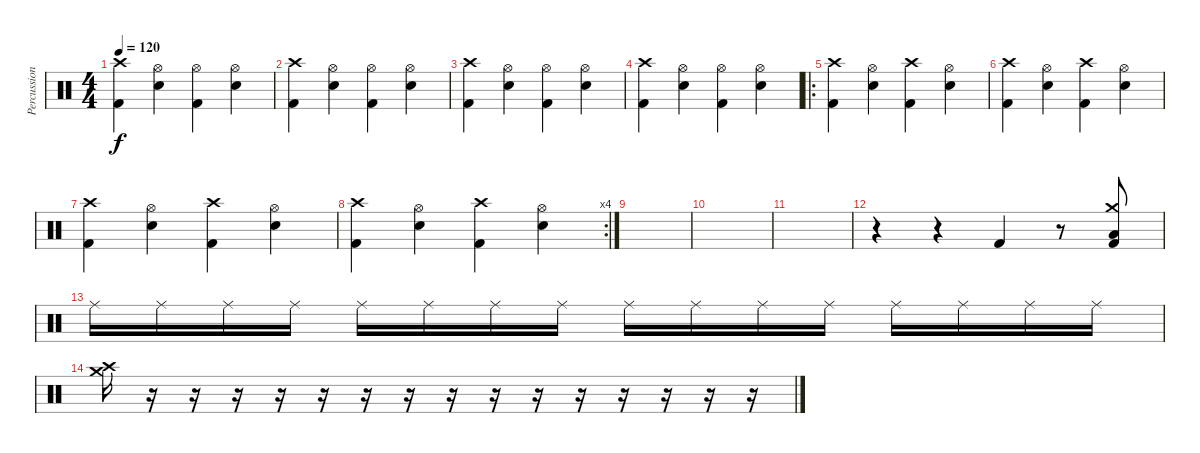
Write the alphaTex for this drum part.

\track ("Percussions" "Percussion") {instrument percussion}
\staff {score}
\articulation defaults
\ts (4 4)
\tempo 120
\clef neutral
\ks c
("Crash high (hit)" "Kick (hit) 2").4{dy f} ("Hi-Hat (open)" "Electric Snare (hit)").4 ("Hi-Hat (open)" "Kick (hit) 2").4 ("Hi-Hat (open)" "Electric Snare (hit)").4 |
("Crash high (hit)" "Kick (hit) 2").4 ("Hi-Hat (open)" "Electric Snare (hit)").4 ("Hi-Hat (open)" "Kick (hit) 2").4 ("Hi-Hat (open)" "Electric Snare (hit)").4 |
("Crash high (hit)" "Kick (hit) 2").4 ("Hi-Hat (open)" "Electric Snare (hit)").4 ("Hi-Hat (open)" "Kick (hit) 2").4 ("Hi-Hat (open)" "Electric Snare (hit)").4 |
("Crash high (hit)" "Kick (hit) 2").4 ("Hi-Hat (open)" "Electric Snare (hit)").4 ("Hi-Hat (open)" "Kick (hit) 2").4 ("Hi-Hat (open)" "Electric Snare (hit)").4 |
\ro
("Crash high (hit)" "Kick (hit) 2").4 ("Hi-Hat (open)" "Snare (hit) 2").4 ("Crash high (hit)" "Kick (hit) 2").4 ("Hi-Hat (open)" "Snare (hit) 2").4 |
("Crash high (hit)" "Kick (hit) 2").4 ("Hi-Hat (open)" "Snare (hit) 2").4 ("Crash high (hit)" "Kick (hit) 2").4 ("Hi-Hat (open)" "Snare (hit) 2").4 |
("Crash high (hit)" "Kick (hit) 2").4 ("Hi-Hat (open)" "Snare (hit) 2").4 ("Crash high (hit)" "Kick (hit) 2").4 ("Hi-Hat (open)" "Snare (hit) 2").4 |
\rc 4
("Crash high (hit)" "Kick (hit) 2").4 ("Hi-Hat (open)" "Snare (hit) 2").4 ("Crash high (hit)" "Kick (hit) 2").4 ("Hi-Hat (open)" "Snare (hit) 2").4 |
|
|
|
r.4 r.4 "Kick (hit) 2".4 r.8 ("Crash medium (hit)" "Low Floor Tom (hit)" "Kick (hit) 2").8 |
"Ride (middle)".16{volume 10} "Ride (middle)".16 "Ride (middle)".16 "Ride (middle)".16 "Ride (middle)".16 "Ride (middle)".16 "Ride (middle)".16 "Ride (middle)".16 "Ride (middle)".16 "Ride (middle)".16 "Ride (middle)".16 "Ride (middle)".16 "Ride (middle)".16 "Ride (middle)".16 "Ride (middle)".16 "Ride (middle)".16 |
("Crash medium (hit)" "Crash high (hit)").16 r.16 r.16 r.16 r.16 r.16 r.16 r.16 r.16 r.16 r.16 r.16 r.16 r.16 r.16 r.16
